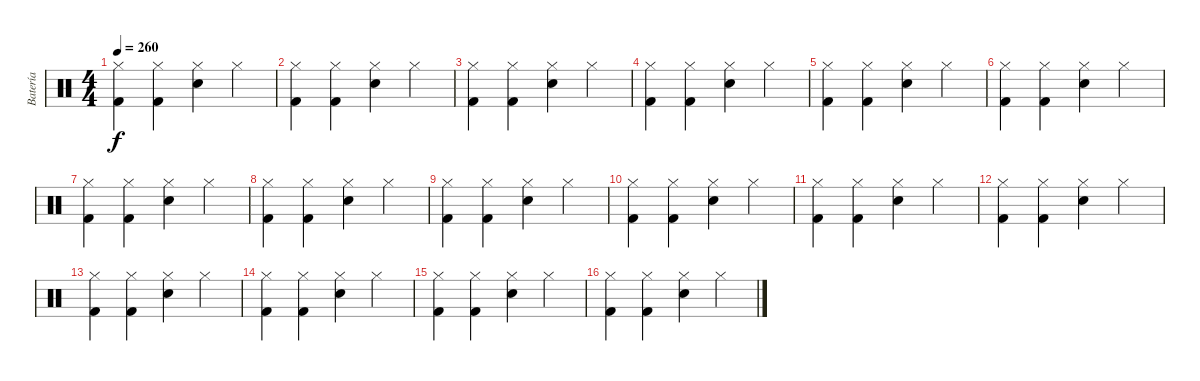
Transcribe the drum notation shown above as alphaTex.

\track ("Batería" "Batería") {instrument percussion}
\staff {score}
\articulation defaults
\ts (4 4)
\tempo 260
\clef neutral
\ks c
("Kick (hit) 2" "Hi-Hat (closed)").4{dy f} ("Kick (hit) 2" "Hi-Hat (closed)").4 ("Snare (hit) 2" "Hi-Hat (closed)").4 "Hi-Hat (closed)".4 |
("Kick (hit) 2" "Hi-Hat (closed)").4 ("Kick (hit) 2" "Hi-Hat (closed)").4 ("Snare (hit) 2" "Hi-Hat (closed)").4 "Hi-Hat (closed)".4 |
("Kick (hit) 2" "Hi-Hat (closed)").4 ("Kick (hit) 2" "Hi-Hat (closed)").4 ("Snare (hit) 2" "Hi-Hat (closed)").4 "Hi-Hat (closed)".4 |
("Kick (hit) 2" "Hi-Hat (closed)").4 ("Kick (hit) 2" "Hi-Hat (closed)").4 ("Snare (hit) 2" "Hi-Hat (closed)").4 "Hi-Hat (closed)".4 |
("Kick (hit) 2" "Hi-Hat (closed)").4 ("Kick (hit) 2" "Hi-Hat (closed)").4 ("Snare (hit) 2" "Hi-Hat (closed)").4 "Hi-Hat (closed)".4 |
("Kick (hit) 2" "Hi-Hat (closed)").4 ("Kick (hit) 2" "Hi-Hat (closed)").4 ("Snare (hit) 2" "Hi-Hat (closed)").4 "Hi-Hat (closed)".4 |
("Kick (hit) 2" "Hi-Hat (closed)").4 ("Kick (hit) 2" "Hi-Hat (closed)").4 ("Snare (hit) 2" "Hi-Hat (closed)").4 "Hi-Hat (closed)".4 |
("Kick (hit) 2" "Hi-Hat (closed)").4 ("Kick (hit) 2" "Hi-Hat (closed)").4 ("Snare (hit) 2" "Hi-Hat (closed)").4 "Hi-Hat (closed)".4 |
("Kick (hit) 2" "Hi-Hat (closed)").4 ("Kick (hit) 2" "Hi-Hat (closed)").4 ("Snare (hit) 2" "Hi-Hat (closed)").4 "Hi-Hat (closed)".4 |
("Kick (hit) 2" "Hi-Hat (closed)").4 ("Kick (hit) 2" "Hi-Hat (closed)").4 ("Snare (hit) 2" "Hi-Hat (closed)").4 "Hi-Hat (closed)".4 |
("Kick (hit) 2" "Hi-Hat (closed)").4 ("Kick (hit) 2" "Hi-Hat (closed)").4 ("Snare (hit) 2" "Hi-Hat (closed)").4 "Hi-Hat (closed)".4 |
("Kick (hit) 2" "Hi-Hat (closed)").4 ("Kick (hit) 2" "Hi-Hat (closed)").4 ("Snare (hit) 2" "Hi-Hat (closed)").4 "Hi-Hat (closed)".4 |
("Kick (hit) 2" "Hi-Hat (closed)").4 ("Kick (hit) 2" "Hi-Hat (closed)").4 ("Snare (hit) 2" "Hi-Hat (closed)").4 "Hi-Hat (closed)".4 |
("Kick (hit) 2" "Hi-Hat (closed)").4 ("Kick (hit) 2" "Hi-Hat (closed)").4 ("Snare (hit) 2" "Hi-Hat (closed)").4 "Hi-Hat (closed)".4 |
("Kick (hit) 2" "Hi-Hat (closed)").4 ("Kick (hit) 2" "Hi-Hat (closed)").4 ("Snare (hit) 2" "Hi-Hat (closed)").4 "Hi-Hat (closed)".4 |
("Kick (hit) 2" "Hi-Hat (closed)").4 ("Kick (hit) 2" "Hi-Hat (closed)").4 ("Snare (hit) 2" "Hi-Hat (closed)").4 "Hi-Hat (closed)".4
